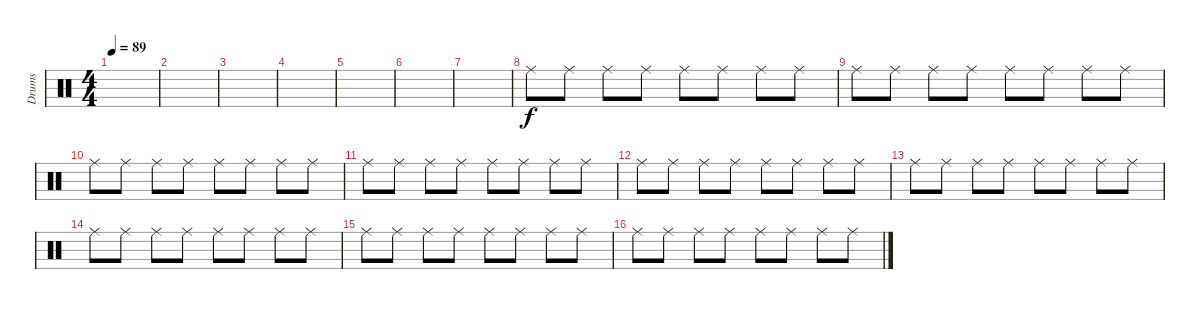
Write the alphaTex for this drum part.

\track ("Drums" "Drums") {instrument percussion}
\staff {score}
\articulation defaults
\ts (4 4)
\tempo 89
\clef neutral
\ks c
|
|
|
|
|
|
|
"Ride (middle)".8 "Ride (middle)".8 "Ride (middle)".8 "Ride (middle)".8 "Ride (middle)".8 "Ride (middle)".8 "Ride (middle)".8 "Ride (middle)".8 |
"Ride (middle)".8 "Ride (middle)".8 "Ride (middle)".8 "Ride (middle)".8 "Ride (middle)".8 "Ride (middle)".8 "Ride (middle)".8 "Ride (middle)".8 |
"Ride (middle)".8 "Ride (middle)".8 "Ride (middle)".8 "Ride (middle)".8 "Ride (middle)".8 "Ride (middle)".8 "Ride (middle)".8 "Ride (middle)".8 |
"Ride (middle)".8 "Ride (middle)".8 "Ride (middle)".8 "Ride (middle)".8 "Ride (middle)".8 "Ride (middle)".8 "Ride (middle)".8 "Ride (middle)".8 |
"Ride (middle)".8 "Ride (middle)".8 "Ride (middle)".8 "Ride (middle)".8 "Ride (middle)".8 "Ride (middle)".8 "Ride (middle)".8 "Ride (middle)".8 |
"Ride (middle)".8 "Ride (middle)".8 "Ride (middle)".8 "Ride (middle)".8 "Ride (middle)".8 "Ride (middle)".8 "Ride (middle)".8 "Ride (middle)".8 |
"Ride (middle)".8 "Ride (middle)".8 "Ride (middle)".8 "Ride (middle)".8 "Ride (middle)".8 "Ride (middle)".8 "Ride (middle)".8 "Ride (middle)".8 |
"Ride (middle)".8 "Ride (middle)".8 "Ride (middle)".8 "Ride (middle)".8 "Ride (middle)".8 "Ride (middle)".8 "Ride (middle)".8 "Ride (middle)".8 |
"Ride (middle)".8 "Ride (middle)".8 "Ride (middle)".8 "Ride (middle)".8 "Ride (middle)".8 "Ride (middle)".8 "Ride (middle)".8 "Ride (middle)".8
